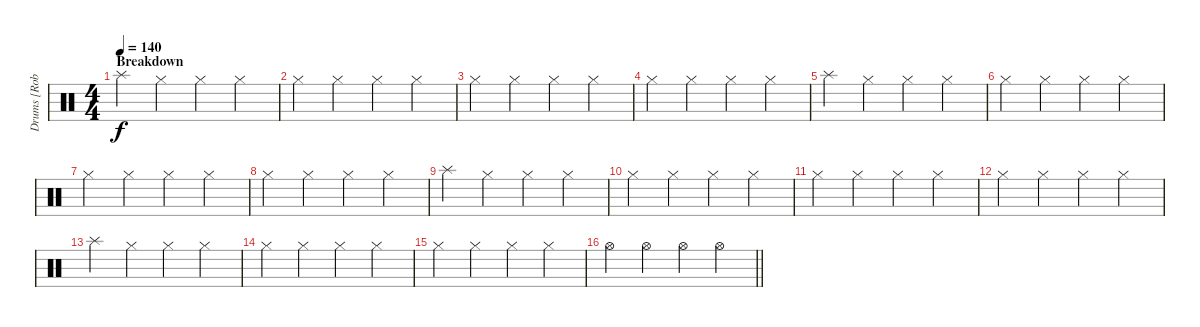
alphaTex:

\track ("Drums [Rob Bourdon]" "Drums [Rob") {instrument percussion}
\staff {score}
\articulation defaults
\ts (4 4)
\section ("" "Breakdown")
\tempo 140
\clef neutral
\ks c "Splash (hit)".4{dy f} "Hi-Hat (closed)".4 "Hi-Hat (closed)".4 "Hi-Hat (closed)".4
|
"Hi-Hat (closed)".4 "Hi-Hat (closed)".4 "Hi-Hat (closed)".4 "Hi-Hat (closed)".4 |
"Hi-Hat (closed)".4 "Hi-Hat (closed)".4 "Hi-Hat (closed)".4 "Hi-Hat (closed)".4 |
"Hi-Hat (closed)".4 "Hi-Hat (closed)".4 "Hi-Hat (closed)".4 "Hi-Hat (closed)".4 |
"Splash (hit)".4 "Hi-Hat (closed)".4 "Hi-Hat (closed)".4 "Hi-Hat (closed)".4 |
"Hi-Hat (closed)".4 "Hi-Hat (closed)".4 "Hi-Hat (closed)".4 "Hi-Hat (closed)".4 |
"Hi-Hat (closed)".4 "Hi-Hat (closed)".4 "Hi-Hat (closed)".4 "Hi-Hat (closed)".4 |
"Hi-Hat (closed)".4 "Hi-Hat (closed)".4 "Hi-Hat (closed)".4 "Hi-Hat (closed)".4 |
"Splash (hit)".4 "Hi-Hat (closed)".4 "Hi-Hat (closed)".4 "Hi-Hat (closed)".4 |
"Hi-Hat (closed)".4 "Hi-Hat (closed)".4 "Hi-Hat (closed)".4 "Hi-Hat (closed)".4 |
"Hi-Hat (closed)".4 "Hi-Hat (closed)".4 "Hi-Hat (closed)".4 "Hi-Hat (closed)".4 |
"Hi-Hat (closed)".4 "Hi-Hat (closed)".4 "Hi-Hat (closed)".4 "Hi-Hat (closed)".4 |
"Splash (hit)".4 "Hi-Hat (closed)".4 "Hi-Hat (closed)".4 "Hi-Hat (closed)".4 |
"Hi-Hat (closed)".4 "Hi-Hat (closed)".4 "Hi-Hat (closed)".4 "Hi-Hat (closed)".4 |
"Hi-Hat (closed)".4 "Hi-Hat (closed)".4 "Hi-Hat (closed)".4 "Hi-Hat (closed)".4 |
\barLineRight lightlight "Hi-Hat (open)".4 "Hi-Hat (open)".4 "Hi-Hat (open)".4 "Hi-Hat (open)".4
